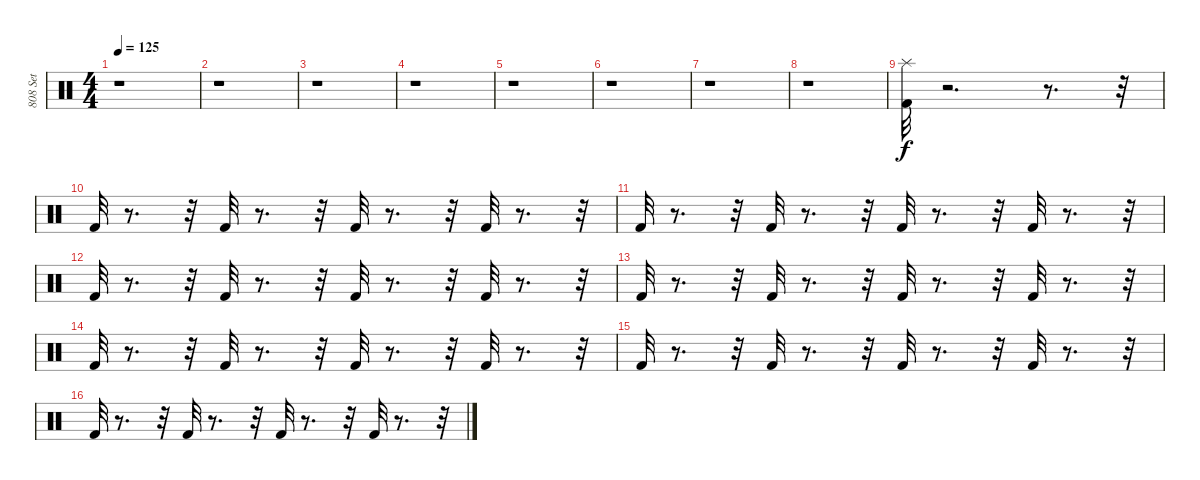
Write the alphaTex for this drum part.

\track ("808 Set" "808 Set") {instrument percussion}
\staff {score}
\articulation defaults
\ts (4 4)
\tempo 125
\clef neutral
\ks c
r.1{dy f} |
r.1 |
r.1 |
r.1 |
r.1 |
r.1 |
r.1 |
r.1 |
("Kick (hit) 2" "Splash (hit)").32 r.2{d} r.8{d} r.32 |
"Kick (hit) 2".32 r.8{d} r.32 "Kick (hit) 2".32 r.8{d} r.32 "Kick (hit) 2".32 r.8{d} r.32 "Kick (hit) 2".32 r.8{d} r.32 |
"Kick (hit) 2".32 r.8{d} r.32 "Kick (hit) 2".32 r.8{d} r.32 "Kick (hit) 2".32 r.8{d} r.32 "Kick (hit) 2".32 r.8{d} r.32 |
"Kick (hit) 2".32 r.8{d} r.32 "Kick (hit) 2".32 r.8{d} r.32 "Kick (hit) 2".32 r.8{d} r.32 "Kick (hit) 2".32 r.8{d} r.32 |
"Kick (hit) 2".32 r.8{d} r.32 "Kick (hit) 2".32 r.8{d} r.32 "Kick (hit) 2".32 r.8{d} r.32 "Kick (hit) 2".32 r.8{d} r.32 |
"Kick (hit) 2".32 r.8{d} r.32 "Kick (hit) 2".32 r.8{d} r.32 "Kick (hit) 2".32 r.8{d} r.32 "Kick (hit) 2".32 r.8{d} r.32 |
"Kick (hit) 2".32 r.8{d} r.32 "Kick (hit) 2".32 r.8{d} r.32 "Kick (hit) 2".32 r.8{d} r.32 "Kick (hit) 2".32 r.8{d} r.32 |
"Kick (hit) 2".32 r.8{d} r.32 "Kick (hit) 2".32 r.8{d} r.32 "Kick (hit) 2".32 r.8{d} r.32 "Kick (hit) 2".32 r.8{d} r.32
